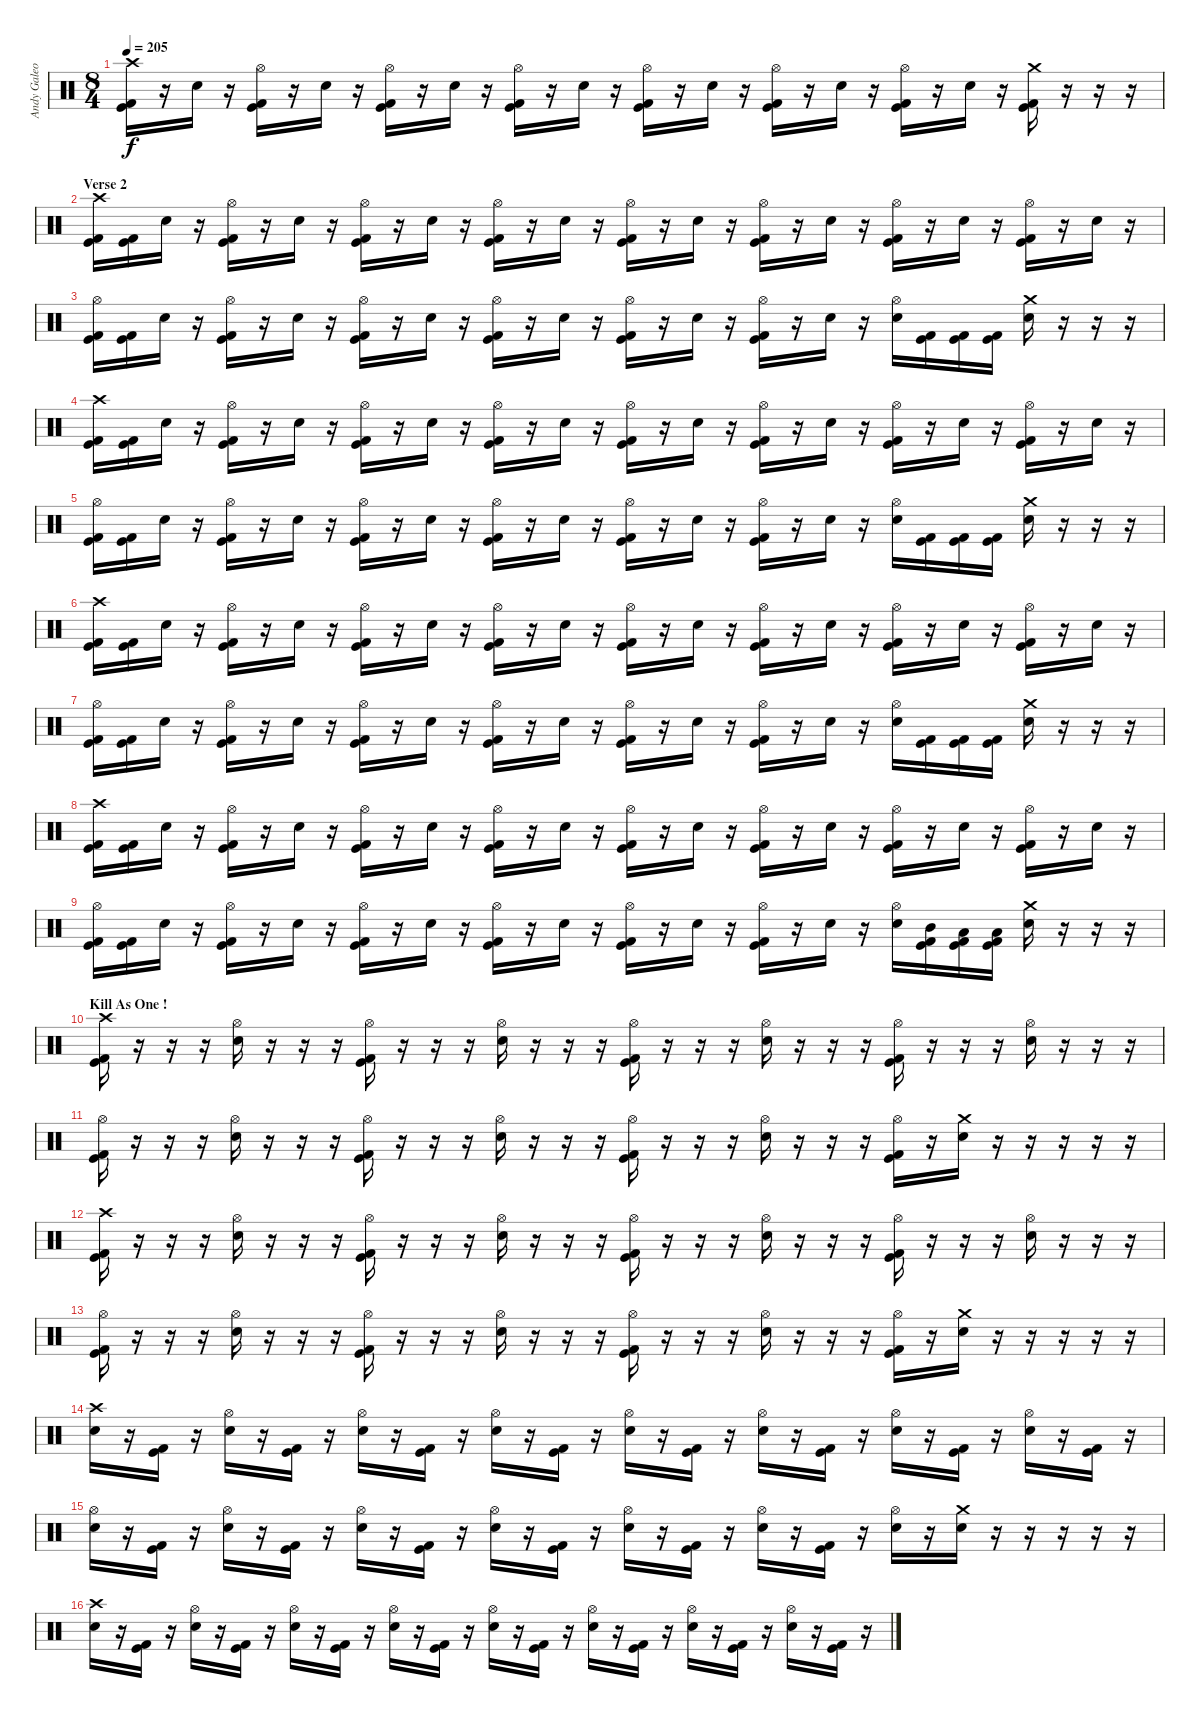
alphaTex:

\track ("Andy Galeon - Drums" "Andy Galeo") {instrument percussion}
\staff {score}
\articulation defaults
\ts (8 4)
\tempo 205
\clef neutral
\ks c
("Crash high (hit)" "Kick (hit) 2" "Kick (hit)").16{dy f} r.16 "Electric Snare (hit)".16 r.16 ("Hi-Hat (open)" "Kick (hit) 2" "Kick (hit)").16 r.16 "Electric Snare (hit)".16 r.16 ("Hi-Hat (open)" "Kick (hit) 2" "Kick (hit)").16 r.16 "Electric Snare (hit)".16 r.16 ("Hi-Hat (open)" "Kick (hit) 2" "Kick (hit)").16 r.16 "Electric Snare (hit)".16 r.16 ("Hi-Hat (open)" "Kick (hit) 2" "Kick (hit)").16 r.16 "Electric Snare (hit)".16 r.16 ("Hi-Hat (open)" "Kick (hit) 2" "Kick (hit)").16 r.16 "Electric Snare (hit)".16 r.16 ("Hi-Hat (open)" "Kick (hit) 2" "Kick (hit)").16 r.16 "Electric Snare (hit)".16 r.16 ("Crash medium (hit)" "Kick (hit)" "Kick (hit) 2").16 r.16 r.16 r.16 |
\section ("" "Verse 2")
("Crash high (hit)" "Kick (hit) 2" "Kick (hit)").16 ("Kick (hit) 2" "Kick (hit)").16 "Electric Snare (hit)".16 r.16 ("Hi-Hat (open)" "Kick (hit) 2" "Kick (hit)").16 r.16 "Electric Snare (hit)".16 r.16 ("Hi-Hat (open)" "Kick (hit) 2" "Kick (hit)").16 r.16 "Electric Snare (hit)".16 r.16 ("Hi-Hat (open)" "Kick (hit) 2" "Kick (hit)").16 r.16 "Electric Snare (hit)".16 r.16 ("Hi-Hat (open)" "Kick (hit) 2" "Kick (hit)").16 r.16 "Electric Snare (hit)".16 r.16 ("Hi-Hat (open)" "Kick (hit) 2" "Kick (hit)").16 r.16 "Electric Snare (hit)".16 r.16 ("Hi-Hat (open)" "Kick (hit) 2" "Kick (hit)").16 r.16 "Electric Snare (hit)".16 r.16 ("Hi-Hat (open)" "Kick (hit)" "Kick (hit) 2").16 r.16 "Electric Snare (hit)".16 r.16 |
("Hi-Hat (open)" "Kick (hit) 2" "Kick (hit)").16 ("Kick (hit) 2" "Kick (hit)").16 "Electric Snare (hit)".16 r.16 ("Hi-Hat (open)" "Kick (hit) 2" "Kick (hit)").16 r.16 "Electric Snare (hit)".16 r.16 ("Hi-Hat (open)" "Kick (hit) 2" "Kick (hit)").16 r.16 "Electric Snare (hit)".16 r.16 ("Hi-Hat (open)" "Kick (hit) 2" "Kick (hit)").16 r.16 "Electric Snare (hit)".16 r.16 ("Hi-Hat (open)" "Kick (hit) 2" "Kick (hit)").16 r.16 "Electric Snare (hit)".16 r.16 ("Hi-Hat (open)" "Kick (hit) 2" "Kick (hit)").16 r.16 "Electric Snare (hit)".16 r.16 ("Hi-Hat (open)" "Electric Snare (hit)").16 ("Kick (hit) 2" "Kick (hit)").16 ("Kick (hit) 2" "Kick (hit)").16 ("Kick (hit) 2" "Kick (hit)").16 ("Crash medium (hit)" "Electric Snare (hit)").16 r.16 r.16 r.16 |
("Crash high (hit)" "Kick (hit) 2" "Kick (hit)").16 ("Kick (hit) 2" "Kick (hit)").16 "Electric Snare (hit)".16 r.16 ("Hi-Hat (open)" "Kick (hit) 2" "Kick (hit)").16 r.16 "Electric Snare (hit)".16 r.16 ("Hi-Hat (open)" "Kick (hit) 2" "Kick (hit)").16 r.16 "Electric Snare (hit)".16 r.16 ("Hi-Hat (open)" "Kick (hit) 2" "Kick (hit)").16 r.16 "Electric Snare (hit)".16 r.16 ("Hi-Hat (open)" "Kick (hit) 2" "Kick (hit)").16 r.16 "Electric Snare (hit)".16 r.16 ("Hi-Hat (open)" "Kick (hit) 2" "Kick (hit)").16 r.16 "Electric Snare (hit)".16 r.16 ("Hi-Hat (open)" "Kick (hit) 2" "Kick (hit)").16 r.16 "Electric Snare (hit)".16 r.16 ("Hi-Hat (open)" "Kick (hit)" "Kick (hit) 2").16 r.16 "Electric Snare (hit)".16 r.16 |
("Hi-Hat (open)" "Kick (hit) 2" "Kick (hit)").16 ("Kick (hit) 2" "Kick (hit)").16 "Electric Snare (hit)".16 r.16 ("Hi-Hat (open)" "Kick (hit) 2" "Kick (hit)").16 r.16 "Electric Snare (hit)".16 r.16 ("Hi-Hat (open)" "Kick (hit) 2" "Kick (hit)").16 r.16 "Electric Snare (hit)".16 r.16 ("Hi-Hat (open)" "Kick (hit) 2" "Kick (hit)").16 r.16 "Electric Snare (hit)".16 r.16 ("Hi-Hat (open)" "Kick (hit) 2" "Kick (hit)").16 r.16 "Electric Snare (hit)".16 r.16 ("Hi-Hat (open)" "Kick (hit) 2" "Kick (hit)").16 r.16 "Electric Snare (hit)".16 r.16 ("Hi-Hat (open)" "Electric Snare (hit)").16 ("Kick (hit) 2" "Kick (hit)").16 ("Kick (hit) 2" "Kick (hit)").16 ("Kick (hit) 2" "Kick (hit)").16 ("Crash medium (hit)" "Electric Snare (hit)").16 r.16 r.16 r.16 |
("Crash high (hit)" "Kick (hit) 2" "Kick (hit)").16 ("Kick (hit) 2" "Kick (hit)").16 "Electric Snare (hit)".16 r.16 ("Hi-Hat (open)" "Kick (hit) 2" "Kick (hit)").16 r.16 "Electric Snare (hit)".16 r.16 ("Hi-Hat (open)" "Kick (hit) 2" "Kick (hit)").16 r.16 "Electric Snare (hit)".16 r.16 ("Hi-Hat (open)" "Kick (hit) 2" "Kick (hit)").16 r.16 "Electric Snare (hit)".16 r.16 ("Hi-Hat (open)" "Kick (hit) 2" "Kick (hit)").16 r.16 "Electric Snare (hit)".16 r.16 ("Hi-Hat (open)" "Kick (hit) 2" "Kick (hit)").16 r.16 "Electric Snare (hit)".16 r.16 ("Hi-Hat (open)" "Kick (hit) 2" "Kick (hit)").16 r.16 "Electric Snare (hit)".16 r.16 ("Hi-Hat (open)" "Kick (hit)" "Kick (hit) 2").16 r.16 "Electric Snare (hit)".16 r.16 |
("Hi-Hat (open)" "Kick (hit) 2" "Kick (hit)").16 ("Kick (hit) 2" "Kick (hit)").16 "Electric Snare (hit)".16 r.16 ("Hi-Hat (open)" "Kick (hit) 2" "Kick (hit)").16 r.16 "Electric Snare (hit)".16 r.16 ("Hi-Hat (open)" "Kick (hit) 2" "Kick (hit)").16 r.16 "Electric Snare (hit)".16 r.16 ("Hi-Hat (open)" "Kick (hit) 2" "Kick (hit)").16 r.16 "Electric Snare (hit)".16 r.16 ("Hi-Hat (open)" "Kick (hit) 2" "Kick (hit)").16 r.16 "Electric Snare (hit)".16 r.16 ("Hi-Hat (open)" "Kick (hit) 2" "Kick (hit)").16 r.16 "Electric Snare (hit)".16 r.16 ("Hi-Hat (open)" "Electric Snare (hit)").16 ("Kick (hit) 2" "Kick (hit)").16 ("Kick (hit) 2" "Kick (hit)").16 ("Kick (hit) 2" "Kick (hit)").16 ("Crash medium (hit)" "Electric Snare (hit)").16 r.16 r.16 r.16 |
("Crash high (hit)" "Kick (hit) 2" "Kick (hit)").16 ("Kick (hit) 2" "Kick (hit)").16 "Electric Snare (hit)".16 r.16 ("Hi-Hat (open)" "Kick (hit) 2" "Kick (hit)").16 r.16 "Electric Snare (hit)".16 r.16 ("Hi-Hat (open)" "Kick (hit) 2" "Kick (hit)").16 r.16 "Electric Snare (hit)".16 r.16 ("Hi-Hat (open)" "Kick (hit) 2" "Kick (hit)").16 r.16 "Electric Snare (hit)".16 r.16 ("Hi-Hat (open)" "Kick (hit) 2" "Kick (hit)").16 r.16 "Electric Snare (hit)".16 r.16 ("Hi-Hat (open)" "Kick (hit) 2" "Kick (hit)").16 r.16 "Electric Snare (hit)".16 r.16 ("Hi-Hat (open)" "Kick (hit) 2" "Kick (hit)").16 r.16 "Electric Snare (hit)".16 r.16 ("Hi-Hat (open)" "Kick (hit)" "Kick (hit) 2").16 r.16 "Electric Snare (hit)".16 r.16 |
("Hi-Hat (open)" "Kick (hit) 2" "Kick (hit)").16 ("Kick (hit) 2" "Kick (hit)").16 "Electric Snare (hit)".16 r.16 ("Hi-Hat (open)" "Kick (hit) 2" "Kick (hit)").16 r.16 "Electric Snare (hit)".16 r.16 ("Hi-Hat (open)" "Kick (hit) 2" "Kick (hit)").16 r.16 "Electric Snare (hit)".16 r.16 ("Hi-Hat (open)" "Kick (hit) 2" "Kick (hit)").16 r.16 "Electric Snare (hit)".16 r.16 ("Hi-Hat (open)" "Kick (hit) 2" "Kick (hit)").16 r.16 "Electric Snare (hit)".16 r.16 ("Hi-Hat (open)" "Kick (hit) 2" "Kick (hit)").16 r.16 "Electric Snare (hit)".16 r.16 ("Hi-Hat (open)" "Electric Snare (hit)").16 ("Mid Tom (hit)" "Kick (hit) 2" "Kick (hit)").16 ("Low Tom (hit)" "Kick (hit) 2" "Kick (hit)").16 ("Low Tom (hit)" "Kick (hit) 2" "Kick (hit)").16 ("Crash medium (hit)" "Electric Snare (hit)").16 r.16 r.16 r.16 |
\section ("" "Kill As One !")
("Crash high (hit)" "Kick (hit) 2" "Kick (hit)").16 r.16 r.16 r.16 ("Hi-Hat (open)" "Electric Snare (hit)").16 r.16 r.16 r.16 ("Hi-Hat (open)" "Kick (hit) 2" "Kick (hit)").16 r.16 r.16 r.16 ("Hi-Hat (open)" "Electric Snare (hit)").16 r.16 r.16 r.16 ("Hi-Hat (open)" "Kick (hit) 2" "Kick (hit)").16 r.16 r.16 r.16 ("Hi-Hat (open)" "Electric Snare (hit)").16 r.16 r.16 r.16 ("Hi-Hat (open)" "Kick (hit) 2" "Kick (hit)").16 r.16 r.16 r.16 ("Hi-Hat (open)" "Electric Snare (hit)").16 r.16 r.16 r.16 |
("Hi-Hat (open)" "Kick (hit) 2" "Kick (hit)").16 r.16 r.16 r.16 ("Hi-Hat (open)" "Electric Snare (hit)").16 r.16 r.16 r.16 ("Hi-Hat (open)" "Kick (hit) 2" "Kick (hit)").16 r.16 r.16 r.16 ("Hi-Hat (open)" "Electric Snare (hit)").16 r.16 r.16 r.16 ("Hi-Hat (open)" "Kick (hit) 2" "Kick (hit)").16 r.16 r.16 r.16 ("Hi-Hat (open)" "Electric Snare (hit)").16 r.16 r.16 r.16 ("Hi-Hat (open)" "Kick (hit) 2" "Kick (hit)").16 r.16 ("Crash medium (hit)" "Electric Snare (hit)").16 r.16 r.16 r.16 r.16 r.16 |
("Crash high (hit)" "Kick (hit) 2" "Kick (hit)").16 r.16 r.16 r.16 ("Hi-Hat (open)" "Electric Snare (hit)").16 r.16 r.16 r.16 ("Hi-Hat (open)" "Kick (hit) 2" "Kick (hit)").16 r.16 r.16 r.16 ("Hi-Hat (open)" "Electric Snare (hit)").16 r.16 r.16 r.16 ("Hi-Hat (open)" "Kick (hit) 2" "Kick (hit)").16 r.16 r.16 r.16 ("Hi-Hat (open)" "Electric Snare (hit)").16 r.16 r.16 r.16 ("Hi-Hat (open)" "Kick (hit) 2" "Kick (hit)").16 r.16 r.16 r.16 ("Hi-Hat (open)" "Electric Snare (hit)").16 r.16 r.16 r.16 |
("Hi-Hat (open)" "Kick (hit) 2" "Kick (hit)").16 r.16 r.16 r.16 ("Hi-Hat (open)" "Electric Snare (hit)").16 r.16 r.16 r.16 ("Hi-Hat (open)" "Kick (hit) 2" "Kick (hit)").16 r.16 r.16 r.16 ("Hi-Hat (open)" "Electric Snare (hit)").16 r.16 r.16 r.16 ("Hi-Hat (open)" "Kick (hit) 2" "Kick (hit)").16 r.16 r.16 r.16 ("Hi-Hat (open)" "Electric Snare (hit)").16 r.16 r.16 r.16 ("Hi-Hat (open)" "Kick (hit) 2" "Kick (hit)").16 r.16 ("Crash medium (hit)" "Electric Snare (hit)").16 r.16 r.16 r.16 r.16 r.16 |
("Crash high (hit)" "Electric Snare (hit)").16 r.16 ("Kick (hit) 2" "Kick (hit)").16 r.16 ("Hi-Hat (open)" "Electric Snare (hit)").16 r.16 ("Kick (hit) 2" "Kick (hit)").16 r.16 ("Hi-Hat (open)" "Electric Snare (hit)").16 r.16 ("Kick (hit) 2" "Kick (hit)").16 r.16 ("Hi-Hat (open)" "Electric Snare (hit)").16 r.16 ("Kick (hit) 2" "Kick (hit)").16 r.16 ("Hi-Hat (open)" "Electric Snare (hit)").16 r.16 ("Kick (hit) 2" "Kick (hit)").16 r.16 ("Hi-Hat (open)" "Electric Snare (hit)").16 r.16 ("Kick (hit) 2" "Kick (hit)").16 r.16 ("Hi-Hat (open)" "Electric Snare (hit)").16 r.16 ("Kick (hit) 2" "Kick (hit)").16 r.16 ("Hi-Hat (open)" "Electric Snare (hit)").16 r.16 ("Kick (hit) 2" "Kick (hit)").16 r.16 |
("Hi-Hat (open)" "Electric Snare (hit)").16 r.16 ("Kick (hit) 2" "Kick (hit)").16 r.16 ("Hi-Hat (open)" "Electric Snare (hit)").16 r.16 ("Kick (hit) 2" "Kick (hit)").16 r.16 ("Hi-Hat (open)" "Electric Snare (hit)").16 r.16 ("Kick (hit) 2" "Kick (hit)").16 r.16 ("Hi-Hat (open)" "Electric Snare (hit)").16 r.16 ("Kick (hit) 2" "Kick (hit)").16 r.16 ("Hi-Hat (open)" "Electric Snare (hit)").16 r.16 ("Kick (hit) 2" "Kick (hit)").16 r.16 ("Hi-Hat (open)" "Electric Snare (hit)").16 r.16 ("Kick (hit) 2" "Kick (hit)").16 r.16 ("Hi-Hat (open)" "Electric Snare (hit)").16 r.16 ("Crash medium (hit)" "Electric Snare (hit)").16 r.16 r.16 r.16 r.16 r.16 |
("Crash high (hit)" "Electric Snare (hit)").16 r.16 ("Kick (hit) 2" "Kick (hit)").16 r.16 ("Hi-Hat (open)" "Electric Snare (hit)").16 r.16 ("Kick (hit) 2" "Kick (hit)").16 r.16 ("Hi-Hat (open)" "Electric Snare (hit)").16 r.16 ("Kick (hit) 2" "Kick (hit)").16 r.16 ("Hi-Hat (open)" "Electric Snare (hit)").16 r.16 ("Kick (hit) 2" "Kick (hit)").16 r.16 ("Hi-Hat (open)" "Electric Snare (hit)").16 r.16 ("Kick (hit) 2" "Kick (hit)").16 r.16 ("Hi-Hat (open)" "Electric Snare (hit)").16 r.16 ("Kick (hit) 2" "Kick (hit)").16 r.16 ("Hi-Hat (open)" "Electric Snare (hit)").16 r.16 ("Kick (hit) 2" "Kick (hit)").16 r.16 ("Hi-Hat (open)" "Electric Snare (hit)").16 r.16 ("Kick (hit) 2" "Kick (hit)").16 r.16
